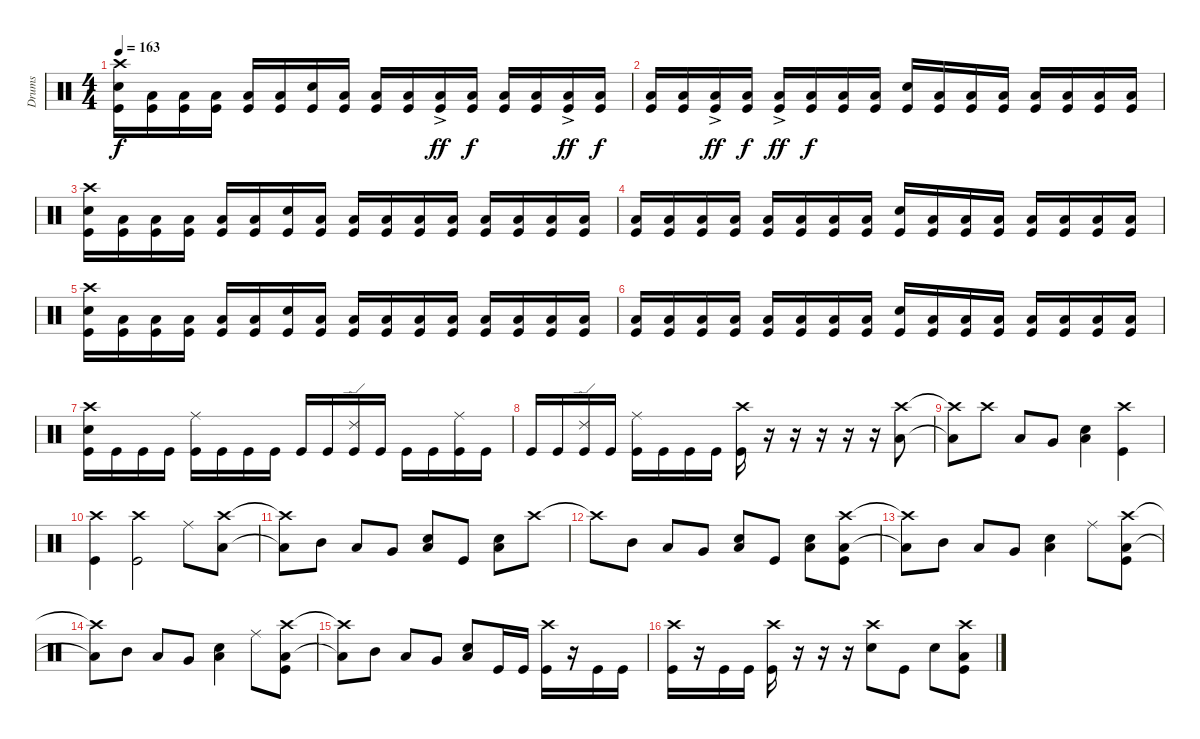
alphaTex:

\track ("Drums" "Drums") {instrument percussion}
\staff {score}
\articulation defaults
\ts (4 4)
\tempo 163
\clef neutral
\ks c
("Crash high (hit)" "Snare (hit) 2" "Kick (hit)").16{dy f} ("Low Tom (hit)" "Kick (hit)").16 ("Low Tom (hit)" "Kick (hit)").16 ("Low Tom (hit)" "Kick (hit)").16 ("Low Tom (hit)" "Kick (hit)").16 ("Low Tom (hit)" "Kick (hit)").16 ("Snare (hit) 2" "Kick (hit)").16 ("Low Tom (hit)" "Kick (hit)").16 ("Low Tom (hit)" "Kick (hit)").16 ("Low Tom (hit)" "Kick (hit)").16 ("Low Tom (hit)"{ac} "Kick (hit)"{ac}).16{dy ff} ("Low Tom (hit)" "Kick (hit)").16{dy f} ("Low Tom (hit)" "Kick (hit)").16 ("Low Tom (hit)" "Kick (hit)").16 ("Low Tom (hit)"{ac} "Kick (hit)"{ac}).16{dy ff} ("Low Tom (hit)" "Kick (hit)").16{dy f} |
("Low Tom (hit)" "Kick (hit)").16 ("Low Tom (hit)" "Kick (hit)").16 ("Low Tom (hit)"{ac} "Kick (hit)"{ac}).16{dy ff} ("Low Tom (hit)" "Kick (hit)").16{dy f} ("Low Tom (hit)"{ac} "Kick (hit)"{ac}).16{dy ff} ("Low Tom (hit)" "Kick (hit)").16{dy f} ("Low Tom (hit)" "Kick (hit)").16 ("Low Tom (hit)" "Kick (hit)").16 ("Snare (hit) 2" "Kick (hit)").16 ("Low Tom (hit)" "Kick (hit)").16 ("Low Tom (hit)" "Kick (hit)").16 ("Low Tom (hit)" "Kick (hit)").16 ("Low Tom (hit)" "Kick (hit)").16 ("Low Tom (hit)" "Kick (hit)").16 ("Low Tom (hit)" "Kick (hit)").16 ("Low Tom (hit)" "Kick (hit)").16 |
("Crash high (hit)" "Snare (hit) 2" "Kick (hit)").16 ("Low Tom (hit)" "Kick (hit)").16 ("Low Tom (hit)" "Kick (hit)").16 ("Low Tom (hit)" "Kick (hit)").16 ("Low Tom (hit)" "Kick (hit)").16 ("Low Tom (hit)" "Kick (hit)").16 ("Snare (hit) 2" "Kick (hit)").16 ("Low Tom (hit)" "Kick (hit)").16 ("Low Tom (hit)" "Kick (hit)").16 ("Low Tom (hit)" "Kick (hit)").16 ("Low Tom (hit)" "Kick (hit)").16 ("Low Tom (hit)" "Kick (hit)").16 ("Low Tom (hit)" "Kick (hit)").16 ("Low Tom (hit)" "Kick (hit)").16 ("Low Tom (hit)" "Kick (hit)").16 ("Low Tom (hit)" "Kick (hit)").16 |
("Low Tom (hit)" "Kick (hit)").16 ("Low Tom (hit)" "Kick (hit)").16 ("Low Tom (hit)" "Kick (hit)").16 ("Low Tom (hit)" "Kick (hit)").16 ("Low Tom (hit)" "Kick (hit)").16 ("Low Tom (hit)" "Kick (hit)").16 ("Low Tom (hit)" "Kick (hit)").16 ("Low Tom (hit)" "Kick (hit)").16 ("Snare (hit) 2" "Kick (hit)").16 ("Low Tom (hit)" "Kick (hit)").16 ("Low Tom (hit)" "Kick (hit)").16 ("Low Tom (hit)" "Kick (hit)").16 ("Low Tom (hit)" "Kick (hit)").16 ("Low Tom (hit)" "Kick (hit)").16 ("Low Tom (hit)" "Kick (hit)").16 ("Low Tom (hit)" "Kick (hit)").16 |
("Crash high (hit)" "Snare (hit) 2" "Kick (hit)").16 ("Low Tom (hit)" "Kick (hit)").16 ("Low Tom (hit)" "Kick (hit)").16 ("Low Tom (hit)" "Kick (hit)").16 ("Low Tom (hit)" "Kick (hit)").16 ("Low Tom (hit)" "Kick (hit)").16 ("Snare (hit) 2" "Kick (hit)").16 ("Low Tom (hit)" "Kick (hit)").16 ("Low Tom (hit)" "Kick (hit)").16 ("Low Tom (hit)" "Kick (hit)").16 ("Low Tom (hit)" "Kick (hit)").16 ("Low Tom (hit)" "Kick (hit)").16 ("Low Tom (hit)" "Kick (hit)").16 ("Low Tom (hit)" "Kick (hit)").16 ("Low Tom (hit)" "Kick (hit)").16 ("Low Tom (hit)" "Kick (hit)").16 |
("Low Tom (hit)" "Kick (hit)").16 ("Low Tom (hit)" "Kick (hit)").16 ("Low Tom (hit)" "Kick (hit)").16 ("Low Tom (hit)" "Kick (hit)").16 ("Low Tom (hit)" "Kick (hit)").16 ("Low Tom (hit)" "Kick (hit)").16 ("Low Tom (hit)" "Kick (hit)").16 ("Low Tom (hit)" "Kick (hit)").16 ("Snare (hit) 2" "Kick (hit)").16 ("Low Tom (hit)" "Kick (hit)").16 ("Low Tom (hit)" "Kick (hit)").16 ("Low Tom (hit)" "Kick (hit)").16 ("Low Tom (hit)" "Kick (hit)").16 ("Low Tom (hit)" "Kick (hit)").16 ("Low Tom (hit)" "Kick (hit)").16 ("Low Tom (hit)" "Kick (hit)").16 |
("Crash high (hit)" "Snare (hit) 2" "Kick (hit)").16 "Kick (hit)".16 "Kick (hit)".16 "Kick (hit)".16 ("Ride (middle)" "Kick (hit)").16 "Kick (hit)".16 "Kick (hit)".16 "Kick (hit)".16 "Kick (hit)".16 "Kick (hit)".16 ("Ride (edge) 2" "Kick (hit)").16 "Kick (hit)".16 "Kick (hit)".16 "Kick (hit)".16 ("Ride (middle)" "Kick (hit)").16 "Kick (hit)".16 |
"Kick (hit)".16 "Kick (hit)".16 ("Ride (edge) 2" "Kick (hit)").16 "Kick (hit)".16 ("Ride (middle)" "Kick (hit)").16 "Kick (hit)".16 "Kick (hit)".16 "Kick (hit)".16 ("Crash high (hit)" "Kick (hit)").16 r.16 r.16 r.16 r.16 r.16 ("Crash high (hit)" "Low Floor Tom (hit)").8 |
("Crash high (hit)"{t} "Low Floor Tom (hit)"{t}).8 "Crash high (hit)".8 "Low Tom (hit)".8 "Very Low Tom (hit)".8 ("Snare (hit) 2" "Low Floor Tom (hit)").4 ("Crash high (hit)" "Kick (hit)").4 |
("Crash high (hit)" "Kick (hit)").4 ("Crash high (hit)" "Kick (hit)").2 "Ride (middle)".8 ("Crash high (hit)" "Low Floor Tom (hit)").8 |
("Crash high (hit)"{t} "Low Floor Tom (hit)"{t}).8 "Mid Tom (hit)".8 "Low Tom (hit)".8 "Very Low Tom (hit)".8 ("Snare (hit) 2" "Low Floor Tom (hit)").8 "Kick (hit)".8 ("Snare (hit) 2" "Low Floor Tom (hit)").8 "Crash high (hit)".8 |
"Crash high (hit)"{t}.8 "Mid Tom (hit)".8 "Low Tom (hit)".8 "Very Low Tom (hit)".8 ("Snare (hit) 2" "Low Floor Tom (hit)").8 "Kick (hit)".8 ("Snare (hit) 2" "Low Floor Tom (hit)").8 ("Crash high (hit)" "Low Floor Tom (hit)" "Kick (hit)").8 |
("Crash high (hit)"{t} "Low Floor Tom (hit)"{t}).8 "Mid Tom (hit)".8 "Low Tom (hit)".8 "Very Low Tom (hit)".8 ("Snare (hit) 2" "Low Floor Tom (hit)").4 "Ride (middle)".8 ("Crash high (hit)" "Low Floor Tom (hit)" "Kick (hit)").8 |
("Crash high (hit)"{t} "Low Floor Tom (hit)"{t}).8 "Mid Tom (hit)".8 "Low Tom (hit)".8 "Very Low Tom (hit)".8 ("Snare (hit) 2" "Low Floor Tom (hit)").4 "Ride (middle)".8 ("Crash high (hit)" "Low Floor Tom (hit)" "Kick (hit)").8 |
("Crash high (hit)"{t} "Low Floor Tom (hit)"{t}).8 "Mid Tom (hit)".8 "Low Tom (hit)".8 "Very Low Tom (hit)".8 ("Snare (hit) 2" "Low Floor Tom (hit)").8 "Kick (hit)".16 "Kick (hit)".16 ("Crash high (hit)" "Kick (hit)").16 r.16 "Kick (hit)".16 "Kick (hit)".16 |
("Crash high (hit)" "Kick (hit)").16 r.16 "Kick (hit)".16 "Kick (hit)".16 ("Crash high (hit)" "Kick (hit)").16 r.16 r.16 r.16 ("Crash high (hit)" "Snare (hit) 2").8 "Kick (hit)".8 "Snare (hit) 2".8 ("Crash high (hit)" "Low Floor Tom (hit)" "Kick (hit)").8
